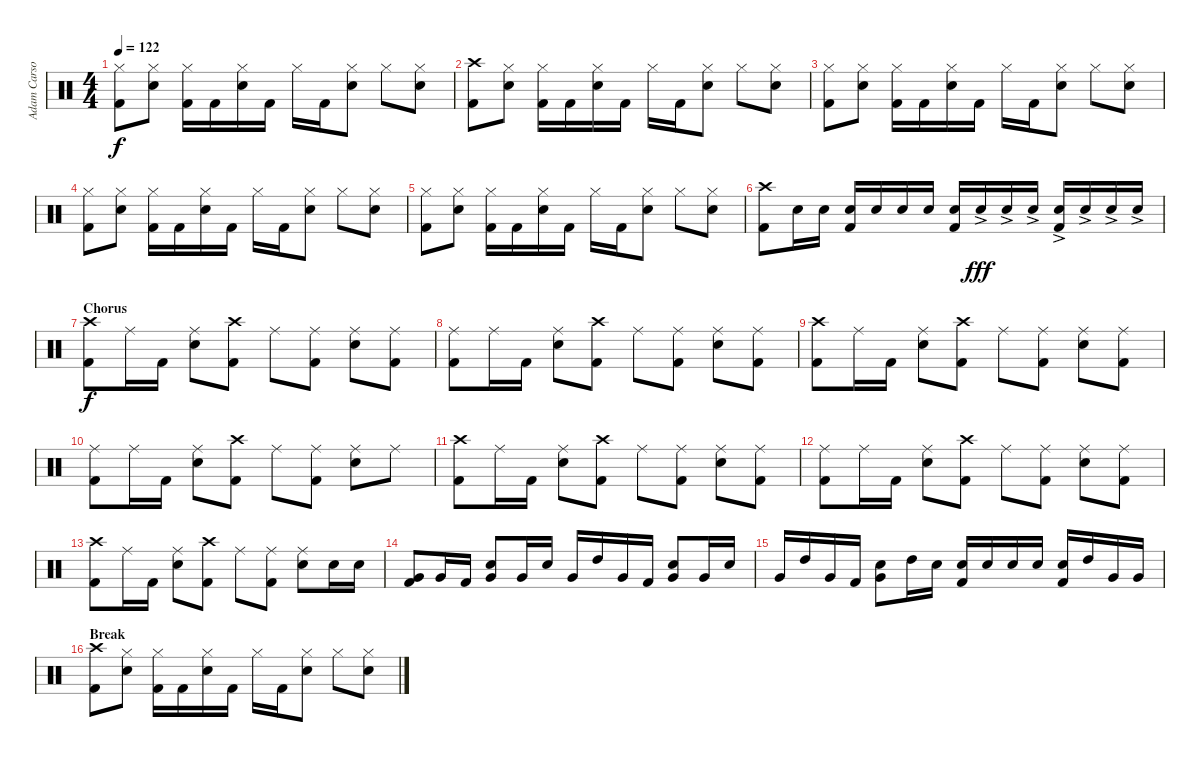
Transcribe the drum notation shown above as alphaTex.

\track ("Adam Carson" "Adam Carso") {instrument percussion}
\staff {score}
\articulation defaults
\ts (4 4)
\tempo 122
\clef neutral
\ks c
("Hi-Hat (closed)" "Kick (hit) 2").8{dy f} ("Hi-Hat (closed)" "Electric Snare (hit)").8 ("Hi-Hat (closed)" "Kick (hit) 2").16 "Kick (hit) 2".16 ("Hi-Hat (closed)" "Electric Snare (hit)").16 "Kick (hit) 2".16 "Hi-Hat (closed)".16 "Kick (hit) 2".16 ("Hi-Hat (closed)" "Electric Snare (hit)").8 "Hi-Hat (closed)".8 ("Hi-Hat (closed)" "Electric Snare (hit)").8 |
("Crash high (hit)" "Kick (hit) 2").8 ("Hi-Hat (closed)" "Electric Snare (hit)").8 ("Hi-Hat (closed)" "Kick (hit) 2").16 "Kick (hit) 2".16 ("Hi-Hat (closed)" "Electric Snare (hit)").16 "Kick (hit) 2".16 "Hi-Hat (closed)".16 "Kick (hit) 2".16 ("Hi-Hat (closed)" "Electric Snare (hit)").8 "Hi-Hat (closed)".8 ("Hi-Hat (closed)" "Electric Snare (hit)").8 |
("Hi-Hat (closed)" "Kick (hit) 2").8 ("Hi-Hat (closed)" "Electric Snare (hit)").8 ("Hi-Hat (closed)" "Kick (hit) 2").16 "Kick (hit) 2".16 ("Hi-Hat (closed)" "Electric Snare (hit)").16 "Kick (hit) 2".16 "Hi-Hat (closed)".16 "Kick (hit) 2".16 ("Hi-Hat (closed)" "Electric Snare (hit)").8 "Hi-Hat (closed)".8 ("Hi-Hat (closed)" "Electric Snare (hit)").8 |
("Hi-Hat (closed)" "Kick (hit) 2").8 ("Hi-Hat (closed)" "Electric Snare (hit)").8 ("Hi-Hat (closed)" "Kick (hit) 2").16 "Kick (hit) 2".16 ("Hi-Hat (closed)" "Electric Snare (hit)").16 "Kick (hit) 2".16 "Hi-Hat (closed)".16 "Kick (hit) 2".16 ("Hi-Hat (closed)" "Electric Snare (hit)").8 "Hi-Hat (closed)".8 ("Hi-Hat (closed)" "Electric Snare (hit)").8 |
("Hi-Hat (closed)" "Kick (hit) 2").8 ("Hi-Hat (closed)" "Electric Snare (hit)").8 ("Hi-Hat (closed)" "Kick (hit) 2").16 "Kick (hit) 2".16 ("Hi-Hat (closed)" "Electric Snare (hit)").16 "Kick (hit) 2".16 "Hi-Hat (closed)".16 "Kick (hit) 2".16 ("Hi-Hat (closed)" "Electric Snare (hit)").8 "Hi-Hat (closed)".8 ("Hi-Hat (closed)" "Electric Snare (hit)").8 |
("Crash high (hit)" "Kick (hit) 2").8 "Electric Snare (hit)".16 "Electric Snare (hit)".16 ("Electric Snare (hit)" "Kick (hit) 2").16 "Electric Snare (hit)".16 "Electric Snare (hit)".16 "Electric Snare (hit)".16 ("Electric Snare (hit)" "Kick (hit) 2").16 "Electric Snare (hit)"{ac}.16{dy fff} "Electric Snare (hit)"{ac}.16 "Electric Snare (hit)"{ac}.16 ("Electric Snare (hit)"{ac} "Kick (hit) 2").16 "Electric Snare (hit)"{ac}.16 "Electric Snare (hit)"{ac}.16 "Electric Snare (hit)"{ac}.16 |
\section ("" "Chorus")
("Crash high (hit)" "Kick (hit) 2").8{dy f} "Ride (middle)".16 "Kick (hit) 2".16 ("Ride (middle)" "Electric Snare (hit)").8 ("Crash high (hit)" "Kick (hit) 2").8 "Ride (middle)".8 ("Ride (middle)" "Kick (hit) 2").8 ("Ride (middle)" "Electric Snare (hit)").8 ("Ride (middle)" "Kick (hit) 2").8 |
("Ride (middle)" "Kick (hit) 2").8 "Ride (middle)".16 "Kick (hit) 2".16 ("Ride (middle)" "Electric Snare (hit)").8 ("Crash high (hit)" "Kick (hit) 2").8 "Ride (middle)".8 ("Ride (middle)" "Kick (hit) 2").8 ("Ride (middle)" "Electric Snare (hit)").8 ("Ride (middle)" "Kick (hit) 2").8 |
("Crash high (hit)" "Kick (hit) 2").8 "Ride (middle)".16 "Kick (hit) 2".16 ("Ride (middle)" "Electric Snare (hit)").8 ("Crash high (hit)" "Kick (hit) 2").8 "Ride (middle)".8 ("Ride (middle)" "Kick (hit) 2").8 ("Ride (middle)" "Electric Snare (hit)").8 ("Ride (middle)" "Kick (hit) 2").8 |
("Ride (middle)" "Kick (hit) 2").8 "Ride (middle)".16 "Kick (hit) 2".16 ("Ride (middle)" "Electric Snare (hit)").8 ("Crash high (hit)" "Kick (hit) 2").8 "Ride (middle)".8 ("Ride (middle)" "Kick (hit) 2").8 ("Ride (middle)" "Electric Snare (hit)").8 "Ride (middle)".8 |
("Crash high (hit)" "Kick (hit) 2").8 "Ride (middle)".16 "Kick (hit) 2".16 ("Ride (middle)" "Electric Snare (hit)").8 ("Crash high (hit)" "Kick (hit) 2").8 "Ride (middle)".8 ("Ride (middle)" "Kick (hit) 2").8 ("Ride (middle)" "Electric Snare (hit)").8 ("Ride (middle)" "Kick (hit) 2").8 |
("Ride (middle)" "Kick (hit) 2").8 "Ride (middle)".16 "Kick (hit) 2".16 ("Ride (middle)" "Electric Snare (hit)").8 ("Crash high (hit)" "Kick (hit) 2").8 "Ride (middle)".8 ("Ride (middle)" "Kick (hit) 2").8 ("Ride (middle)" "Electric Snare (hit)").8 ("Ride (middle)" "Kick (hit) 2").8 |
("Crash high (hit)" "Kick (hit) 2").8 "Ride (middle)".16 "Kick (hit) 2".16 ("Ride (middle)" "Electric Snare (hit)").8 ("Crash high (hit)" "Kick (hit) 2").8 "Ride (middle)".8 ("Ride (middle)" "Kick (hit) 2").8 ("Ride (middle)" "Electric Snare (hit)").8 "Electric Snare (hit)".16 "Electric Snare (hit)".16 |
("Very Low Tom (hit)" "Kick (hit) 2").8 "Very Low Tom (hit)".16 "Kick (hit) 2".16 ("Very Low Tom (hit)" "Electric Snare (hit)").8 "Very Low Tom (hit)".16 "Electric Snare (hit)".16 "Very Low Tom (hit)".16 "High Tom (hit)".16 "Very Low Tom (hit)".16 "Kick (hit) 2".16 ("Very Low Tom (hit)" "Electric Snare (hit)").8 "Very Low Tom (hit)".16 "Electric Snare (hit)".16 |
"Very Low Tom (hit)".16 "High Tom (hit)".16 "Very Low Tom (hit)".16 "Kick (hit) 2".16 ("Very Low Tom (hit)" "Electric Snare (hit)").8 "High Tom (hit)".16 "Electric Snare (hit)".16 ("Electric Snare (hit)" "Kick (hit) 2").16 "Electric Snare (hit)".16 "Electric Snare (hit)".16 "Electric Snare (hit)".16 ("Electric Snare (hit)" "Kick (hit) 2").16 "High Tom (hit)".16 "Very Low Tom (hit)".16 "Very Low Tom (hit)".16 |
\section ("" "Break")
("Crash high (hit)" "Kick (hit) 2").8 ("Hi-Hat (closed)" "Electric Snare (hit)").8 ("Hi-Hat (closed)" "Kick (hit) 2").16 "Kick (hit) 2".16 ("Hi-Hat (closed)" "Electric Snare (hit)").16 "Kick (hit) 2".16 "Hi-Hat (closed)".16 "Kick (hit) 2".16 ("Hi-Hat (closed)" "Electric Snare (hit)").8 "Hi-Hat (closed)".8 ("Hi-Hat (closed)" "Electric Snare (hit)").8
